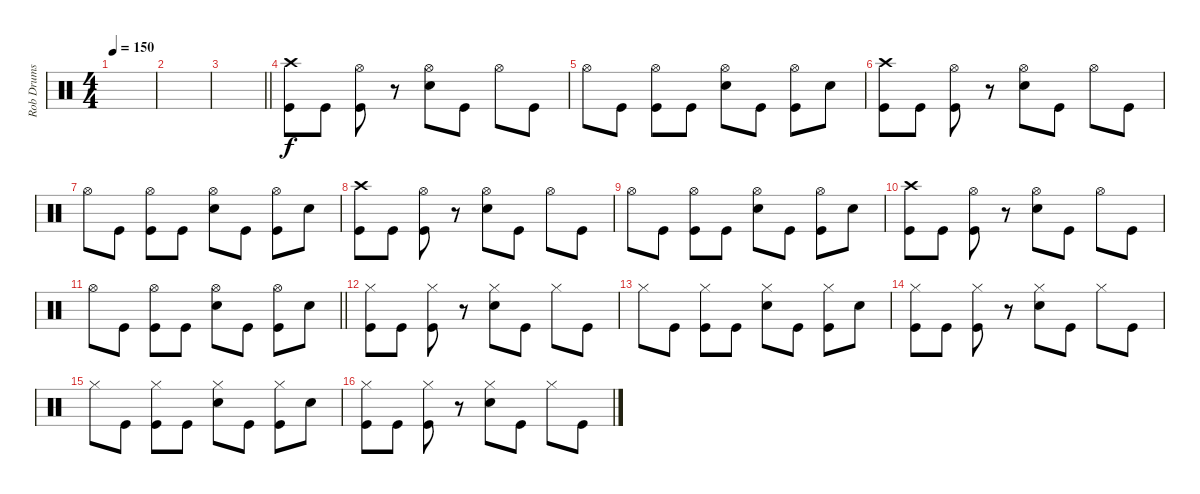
\track ("Rob Drums" "Rob Drums") {instrument percussion}
\staff {score}
\articulation defaults
\ts (4 4)
\tempo 150
\clef neutral
\ks c
|
|
\barLineRight lightlight
|
("Crash high (hit)" "Kick (hit)").8 "Kick (hit)".8 ("Hi-Hat (open)" "Kick (hit)").8 r.8 ("Hi-Hat (open)" "Snare (hit) 2").8 "Kick (hit)".8 "Hi-Hat (open)".8 "Kick (hit)".8 |
"Hi-Hat (open)".8 "Kick (hit)".8 ("Hi-Hat (open)" "Kick (hit)").8 "Kick (hit)".8 ("Hi-Hat (open)" "Snare (hit) 2").8 "Kick (hit)".8 ("Hi-Hat (open)" "Kick (hit)").8 "Snare (hit) 2".8 |
("Crash high (hit)" "Kick (hit)").8 "Kick (hit)".8 ("Hi-Hat (open)" "Kick (hit)").8 r.8 ("Hi-Hat (open)" "Snare (hit) 2").8 "Kick (hit)".8 "Hi-Hat (open)".8 "Kick (hit)".8 |
"Hi-Hat (open)".8 "Kick (hit)".8 ("Hi-Hat (open)" "Kick (hit)").8 "Kick (hit)".8 ("Hi-Hat (open)" "Snare (hit) 2").8 "Kick (hit)".8 ("Hi-Hat (open)" "Kick (hit)").8 "Snare (hit) 2".8 |
("Crash high (hit)" "Kick (hit)").8 "Kick (hit)".8 ("Hi-Hat (open)" "Kick (hit)").8 r.8 ("Hi-Hat (open)" "Snare (hit) 2").8 "Kick (hit)".8 "Hi-Hat (open)".8 "Kick (hit)".8 |
"Hi-Hat (open)".8 "Kick (hit)".8 ("Hi-Hat (open)" "Kick (hit)").8 "Kick (hit)".8 ("Hi-Hat (open)" "Snare (hit) 2").8 "Kick (hit)".8 ("Hi-Hat (open)" "Kick (hit)").8 "Snare (hit) 2".8 |
("Crash high (hit)" "Kick (hit)").8 "Kick (hit)".8 ("Hi-Hat (open)" "Kick (hit)").8 r.8 ("Hi-Hat (open)" "Snare (hit) 2").8 "Kick (hit)".8 "Hi-Hat (open)".8 "Kick (hit)".8 |
\barLineRight lightlight "Hi-Hat (open)".8 "Kick (hit)".8
("Hi-Hat (open)" "Kick (hit)").8 "Kick (hit)".8 ("Hi-Hat (open)" "Snare (hit) 2").8 "Kick (hit)".8 ("Hi-Hat (open)" "Kick (hit)").8 "Snare (hit) 2".8 |
("Hi-Hat (closed)" "Kick (hit)").8 "Kick (hit)".8 ("Hi-Hat (closed)" "Kick (hit)").8 r.8 ("Hi-Hat (closed)" "Snare (hit) 2").8 "Kick (hit)".8 "Hi-Hat (closed)".8 "Kick (hit)".8 |
"Hi-Hat (closed)".8 "Kick (hit)".8 ("Hi-Hat (closed)" "Kick (hit)").8 "Kick (hit)".8 ("Hi-Hat (closed)" "Snare (hit) 2").8 "Kick (hit)".8 ("Hi-Hat (closed)" "Kick (hit)").8 "Snare (hit) 2".8 |
("Hi-Hat (closed)" "Kick (hit)").8 "Kick (hit)".8 ("Hi-Hat (closed)" "Kick (hit)").8 r.8 ("Hi-Hat (closed)" "Snare (hit) 2").8 "Kick (hit)".8 "Hi-Hat (closed)".8 "Kick (hit)".8 |
"Hi-Hat (closed)".8 "Kick (hit)".8 ("Hi-Hat (closed)" "Kick (hit)").8 "Kick (hit)".8 ("Hi-Hat (closed)" "Snare (hit) 2").8 "Kick (hit)".8 ("Hi-Hat (closed)" "Kick (hit)").8 "Snare (hit) 2".8 |
("Hi-Hat (closed)" "Kick (hit)").8 "Kick (hit)".8 ("Hi-Hat (closed)" "Kick (hit)").8 r.8 ("Hi-Hat (closed)" "Snare (hit) 2").8 "Kick (hit)".8 "Hi-Hat (closed)".8 "Kick (hit)".8
